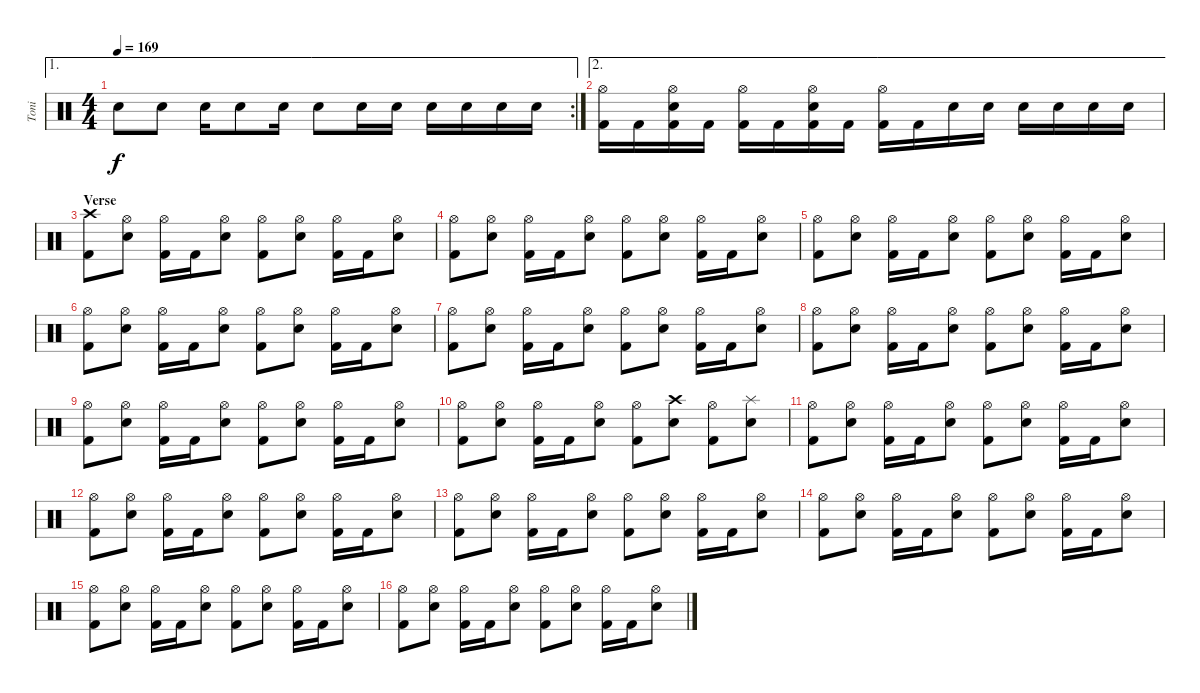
\track ("Toni" "Toni") {instrument percussion}
\staff {score}
\articulation defaults
\ae 1
\rc 2
\ts (4 4)
\tempo 169
\clef neutral
\ks c "Electric Snare (hit)".8{dy f} "Electric Snare (hit)".8 "Electric Snare (hit)".16 "Electric Snare (hit)".8 "Electric Snare (hit)".16 "Electric Snare (hit)".8 "Electric Snare (hit)".16 "Electric Snare (hit)".16 "Electric Snare (hit)".16 "Electric Snare (hit)".16 "Electric Snare (hit)".16 "Electric Snare (hit)".16
|
\ae 2
("Hi-Hat (open)" "Kick (hit) 2").16 "Kick (hit) 2".16 ("Hi-Hat (open)" "Electric Snare (hit)" "Kick (hit) 2").16 "Kick (hit) 2".16 ("Hi-Hat (open)" "Kick (hit) 2").16 "Kick (hit) 2".16 ("Hi-Hat (open)" "Electric Snare (hit)" "Kick (hit) 2").16 "Kick (hit) 2".16 ("Hi-Hat (open)" "Kick (hit) 2").16 "Kick (hit) 2".16 "Electric Snare (hit)".16 "Electric Snare (hit)".16 "Electric Snare (hit)".16 "Electric Snare (hit)".16 "Electric Snare (hit)".16 "Electric Snare (hit)".16 |
\section ("" "Verse")
("Crash high (hit)" "Kick (hit) 2").8 ("Hi-Hat (open)" "Electric Snare (hit)").8 ("Hi-Hat (open)" "Kick (hit) 2").16 "Kick (hit) 2".16 ("Hi-Hat (open)" "Electric Snare (hit)").8 ("Hi-Hat (open)" "Kick (hit) 2").8 ("Hi-Hat (open)" "Electric Snare (hit)").8 ("Hi-Hat (open)" "Kick (hit) 2").16 "Kick (hit) 2".16 ("Hi-Hat (open)" "Electric Snare (hit)").8 |
("Hi-Hat (open)" "Kick (hit) 2").8 ("Hi-Hat (open)" "Electric Snare (hit)").8 ("Hi-Hat (open)" "Kick (hit) 2").16 "Kick (hit) 2".16 ("Hi-Hat (open)" "Electric Snare (hit)").8 ("Hi-Hat (open)" "Kick (hit) 2").8 ("Hi-Hat (open)" "Electric Snare (hit)").8 ("Hi-Hat (open)" "Kick (hit) 2").16 "Kick (hit) 2".16 ("Hi-Hat (open)" "Electric Snare (hit)").8 |
("Hi-Hat (open)" "Kick (hit) 2").8 ("Hi-Hat (open)" "Electric Snare (hit)").8 ("Hi-Hat (open)" "Kick (hit) 2").16 "Kick (hit) 2".16 ("Hi-Hat (open)" "Electric Snare (hit)").8 ("Hi-Hat (open)" "Kick (hit) 2").8 ("Hi-Hat (open)" "Electric Snare (hit)").8 ("Hi-Hat (open)" "Kick (hit) 2").16 "Kick (hit) 2".16 ("Hi-Hat (open)" "Electric Snare (hit)").8 |
("Hi-Hat (open)" "Kick (hit) 2").8 ("Hi-Hat (open)" "Electric Snare (hit)").8 ("Hi-Hat (open)" "Kick (hit) 2").16 "Kick (hit) 2".16 ("Hi-Hat (open)" "Electric Snare (hit)").8 ("Hi-Hat (open)" "Kick (hit) 2").8 ("Hi-Hat (open)" "Electric Snare (hit)").8 ("Hi-Hat (open)" "Kick (hit) 2").16 "Kick (hit) 2".16 ("Hi-Hat (open)" "Electric Snare (hit)").8 |
("Hi-Hat (open)" "Kick (hit) 2").8 ("Hi-Hat (open)" "Electric Snare (hit)").8 ("Hi-Hat (open)" "Kick (hit) 2").16 "Kick (hit) 2".16 ("Hi-Hat (open)" "Electric Snare (hit)").8 ("Hi-Hat (open)" "Kick (hit) 2").8 ("Hi-Hat (open)" "Electric Snare (hit)").8 ("Hi-Hat (open)" "Kick (hit) 2").16 "Kick (hit) 2".16 ("Hi-Hat (open)" "Electric Snare (hit)").8 |
("Hi-Hat (open)" "Kick (hit) 2").8 ("Hi-Hat (open)" "Electric Snare (hit)").8 ("Hi-Hat (open)" "Kick (hit) 2").16 "Kick (hit) 2".16 ("Hi-Hat (open)" "Electric Snare (hit)").8 ("Hi-Hat (open)" "Kick (hit) 2").8 ("Hi-Hat (open)" "Electric Snare (hit)").8 ("Hi-Hat (open)" "Kick (hit) 2").16 "Kick (hit) 2".16 ("Hi-Hat (open)" "Electric Snare (hit)").8 |
("Hi-Hat (open)" "Kick (hit) 2").8 ("Hi-Hat (open)" "Electric Snare (hit)").8 ("Hi-Hat (open)" "Kick (hit) 2").16 "Kick (hit) 2".16 ("Hi-Hat (open)" "Electric Snare (hit)").8 ("Hi-Hat (open)" "Kick (hit) 2").8 ("Hi-Hat (open)" "Electric Snare (hit)").8 ("Hi-Hat (open)" "Kick (hit) 2").16 "Kick (hit) 2".16 ("Hi-Hat (open)" "Electric Snare (hit)").8 |
("Hi-Hat (open)" "Kick (hit) 2").8 ("Hi-Hat (open)" "Electric Snare (hit)").8 ("Hi-Hat (open)" "Kick (hit) 2").16 "Kick (hit) 2".16 ("Hi-Hat (open)" "Electric Snare (hit)").8 ("Hi-Hat (open)" "Kick (hit) 2").8 ("Crash high (hit)" "Electric Snare (hit)").8 ("Hi-Hat (open)" "Kick (hit) 2").8 ("Splash (hit)" "Electric Snare (hit)").8 |
("Hi-Hat (open)" "Kick (hit) 2").8 ("Hi-Hat (open)" "Electric Snare (hit)").8 ("Hi-Hat (open)" "Kick (hit) 2").16 "Kick (hit) 2".16 ("Hi-Hat (open)" "Electric Snare (hit)").8 ("Hi-Hat (open)" "Kick (hit) 2").8 ("Hi-Hat (open)" "Electric Snare (hit)").8 ("Hi-Hat (open)" "Kick (hit) 2").16 "Kick (hit) 2".16 ("Hi-Hat (open)" "Electric Snare (hit)").8 |
("Hi-Hat (open)" "Kick (hit) 2").8 ("Hi-Hat (open)" "Electric Snare (hit)").8 ("Hi-Hat (open)" "Kick (hit) 2").16 "Kick (hit) 2".16 ("Hi-Hat (open)" "Electric Snare (hit)").8 ("Hi-Hat (open)" "Kick (hit) 2").8 ("Hi-Hat (open)" "Electric Snare (hit)").8 ("Hi-Hat (open)" "Kick (hit) 2").16 "Kick (hit) 2".16 ("Hi-Hat (open)" "Electric Snare (hit)").8 |
("Hi-Hat (open)" "Kick (hit) 2").8 ("Hi-Hat (open)" "Electric Snare (hit)").8 ("Hi-Hat (open)" "Kick (hit) 2").16 "Kick (hit) 2".16 ("Hi-Hat (open)" "Electric Snare (hit)").8 ("Hi-Hat (open)" "Kick (hit) 2").8 ("Hi-Hat (open)" "Electric Snare (hit)").8 ("Hi-Hat (open)" "Kick (hit) 2").16 "Kick (hit) 2".16 ("Hi-Hat (open)" "Electric Snare (hit)").8 |
("Hi-Hat (open)" "Kick (hit) 2").8 ("Hi-Hat (open)" "Electric Snare (hit)").8 ("Hi-Hat (open)" "Kick (hit) 2").16 "Kick (hit) 2".16 ("Hi-Hat (open)" "Electric Snare (hit)").8 ("Hi-Hat (open)" "Kick (hit) 2").8 ("Hi-Hat (open)" "Electric Snare (hit)").8 ("Hi-Hat (open)" "Kick (hit) 2").16 "Kick (hit) 2".16 ("Hi-Hat (open)" "Electric Snare (hit)").8 |
("Hi-Hat (open)" "Kick (hit) 2").8 ("Hi-Hat (open)" "Electric Snare (hit)").8 ("Hi-Hat (open)" "Kick (hit) 2").16 "Kick (hit) 2".16 ("Hi-Hat (open)" "Electric Snare (hit)").8 ("Hi-Hat (open)" "Kick (hit) 2").8 ("Hi-Hat (open)" "Electric Snare (hit)").8 ("Hi-Hat (open)" "Kick (hit) 2").16 "Kick (hit) 2".16 ("Hi-Hat (open)" "Electric Snare (hit)").8 |
("Hi-Hat (open)" "Kick (hit) 2").8 ("Hi-Hat (open)" "Electric Snare (hit)").8 ("Hi-Hat (open)" "Kick (hit) 2").16 "Kick (hit) 2".16 ("Hi-Hat (open)" "Electric Snare (hit)").8 ("Hi-Hat (open)" "Kick (hit) 2").8 ("Hi-Hat (open)" "Electric Snare (hit)").8 ("Hi-Hat (open)" "Kick (hit) 2").16 "Kick (hit) 2".16 ("Hi-Hat (open)" "Electric Snare (hit)").8
